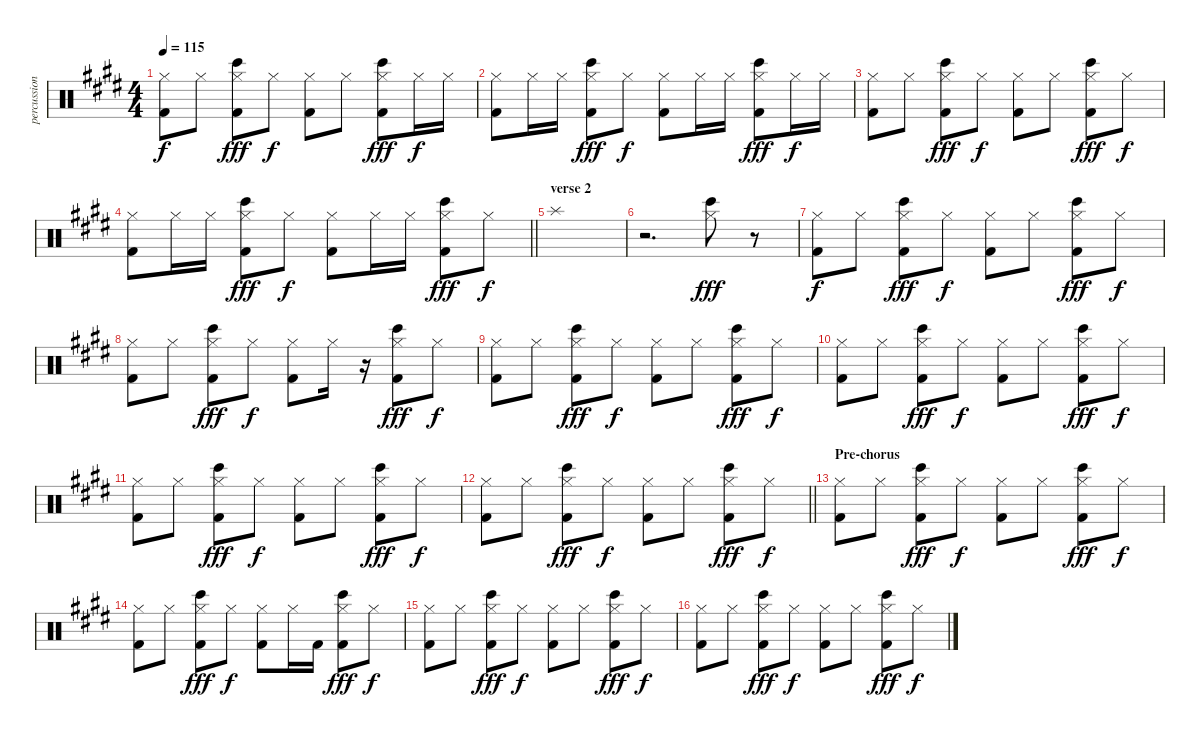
\track ("percussion" "percussion") {instrument percussion}
\staff {score}
\articulation defaults
\ts (4 4)
\tempo 115
\clef neutral
\ks c#minor
("Hi-Hat (closed)" "Kick (hit) 2").8{dy f} "Hi-Hat (closed)".8 ("Bongo High (hit)" "Hi-Hat (closed)" "Kick (hit) 2").8{dy fff} "Hi-Hat (closed)".8{dy f} ("Hi-Hat (closed)" "Kick (hit) 2").8 "Hi-Hat (closed)".8 ("Bongo High (hit)" "Hi-Hat (closed)" "Kick (hit) 2").8{dy fff} "Hi-Hat (closed)".16{dy f} "Hi-Hat (closed)".16 |
("Hi-Hat (closed)" "Kick (hit) 2").8 "Hi-Hat (closed)".16 "Hi-Hat (closed)".16 ("Bongo High (hit)" "Hi-Hat (closed)" "Kick (hit) 2").8{dy fff} "Hi-Hat (closed)".8{dy f} ("Hi-Hat (closed)" "Kick (hit) 2").8 "Hi-Hat (closed)".16 "Hi-Hat (closed)".16 ("Bongo High (hit)" "Hi-Hat (closed)" "Kick (hit) 2").8{dy fff} "Hi-Hat (closed)".16{dy f} "Hi-Hat (closed)".16 |
("Hi-Hat (closed)" "Kick (hit) 2").8 "Hi-Hat (closed)".8 ("Bongo High (hit)" "Hi-Hat (closed)" "Kick (hit) 2").8{dy fff} "Hi-Hat (closed)".8{dy f} ("Hi-Hat (closed)" "Kick (hit) 2").8 "Hi-Hat (closed)".8 ("Bongo High (hit)" "Hi-Hat (closed)" "Kick (hit) 2").8{dy fff} "Hi-Hat (closed)".8{dy f} |
\barLineRight lightlight
("Hi-Hat (closed)" "Kick (hit) 2").8 "Hi-Hat (closed)".16 "Hi-Hat (closed)".16 ("Bongo High (hit)" "Hi-Hat (closed)" "Kick (hit) 2").8{dy fff} "Hi-Hat (closed)".8{dy f} ("Hi-Hat (closed)" "Kick (hit) 2").8 "Hi-Hat (closed)".16 "Hi-Hat (closed)".16 ("Bongo High (hit)" "Hi-Hat (closed)" "Kick (hit) 2").8{dy fff} "Hi-Hat (closed)".8{dy f} |
\section ("" "verse 2")
"Splash (hit)".1 |
r.2{d} ("Bongo High (hit)" "Hi-Hat (closed)").8{dy fff} r.8 |
("Hi-Hat (closed)" "Kick (hit) 2").8{dy f} "Hi-Hat (closed)".8 ("Bongo High (hit)" "Hi-Hat (closed)" "Kick (hit) 2").8{dy fff} "Hi-Hat (closed)".8{dy f} ("Hi-Hat (closed)" "Kick (hit) 2").8 "Hi-Hat (closed)".8 ("Bongo High (hit)" "Hi-Hat (closed)" "Kick (hit) 2").8{dy fff} "Hi-Hat (closed)".8{dy f} |
("Hi-Hat (closed)" "Kick (hit) 2").8 "Hi-Hat (closed)".8 ("Bongo High (hit)" "Hi-Hat (closed)" "Kick (hit) 2").8{dy fff} "Hi-Hat (closed)".8{dy f} ("Hi-Hat (closed)" "Kick (hit) 2").8 "Hi-Hat (closed)".16 r.16 ("Bongo High (hit)" "Hi-Hat (closed)" "Kick (hit) 2").8{dy fff} "Hi-Hat (closed)".8{dy f} |
("Hi-Hat (closed)" "Kick (hit) 2").8 "Hi-Hat (closed)".8 ("Bongo High (hit)" "Hi-Hat (closed)" "Kick (hit) 2").8{dy fff} "Hi-Hat (closed)".8{dy f} ("Hi-Hat (closed)" "Kick (hit) 2").8 "Hi-Hat (closed)".8 ("Bongo High (hit)" "Hi-Hat (closed)" "Kick (hit) 2").8{dy fff} "Hi-Hat (closed)".8{dy f} |
("Hi-Hat (closed)" "Kick (hit) 2").8 "Hi-Hat (closed)".8 ("Bongo High (hit)" "Hi-Hat (closed)" "Kick (hit) 2").8{dy fff} "Hi-Hat (closed)".8{dy f} ("Hi-Hat (closed)" "Kick (hit) 2").8 "Hi-Hat (closed)".8 ("Bongo High (hit)" "Hi-Hat (closed)" "Kick (hit) 2").8{dy fff} "Hi-Hat (closed)".8{dy f} |
("Hi-Hat (closed)" "Kick (hit) 2").8 "Hi-Hat (closed)".8 ("Bongo High (hit)" "Hi-Hat (closed)" "Kick (hit) 2").8{dy fff} "Hi-Hat (closed)".8{dy f} ("Hi-Hat (closed)" "Kick (hit) 2").8 "Hi-Hat (closed)".8 ("Bongo High (hit)" "Hi-Hat (closed)" "Kick (hit) 2").8{dy fff} "Hi-Hat (closed)".8{dy f} |
\barLineRight lightlight
("Hi-Hat (closed)" "Kick (hit) 2").8 "Hi-Hat (closed)".8 ("Bongo High (hit)" "Hi-Hat (closed)" "Kick (hit) 2").8{dy fff} "Hi-Hat (closed)".8{dy f} ("Hi-Hat (closed)" "Kick (hit) 2").8 "Hi-Hat (closed)".8 ("Bongo High (hit)" "Hi-Hat (closed)" "Kick (hit) 2").8{dy fff} "Hi-Hat (closed)".8{dy f} |
\section ("" "Pre-chorus")
("Hi-Hat (closed)" "Kick (hit) 2").8 "Hi-Hat (closed)".8 ("Bongo High (hit)" "Hi-Hat (closed)" "Kick (hit) 2").8{dy fff} "Hi-Hat (closed)".8{dy f} ("Hi-Hat (closed)" "Kick (hit) 2").8 "Hi-Hat (closed)".8 ("Bongo High (hit)" "Hi-Hat (closed)" "Kick (hit) 2").8{dy fff} "Hi-Hat (closed)".8{dy f} |
("Hi-Hat (closed)" "Kick (hit) 2").8 "Hi-Hat (closed)".8 ("Bongo High (hit)" "Hi-Hat (closed)" "Kick (hit) 2").8{dy fff} "Hi-Hat (closed)".8{dy f} ("Hi-Hat (closed)" "Kick (hit) 2").8 "Hi-Hat (closed)".16 "Kick (hit) 2".16 ("Bongo High (hit)" "Hi-Hat (closed)" "Kick (hit) 2").8{dy fff} "Hi-Hat (closed)".8{dy f} |
("Hi-Hat (closed)" "Kick (hit) 2").8 "Hi-Hat (closed)".8 ("Bongo High (hit)" "Hi-Hat (closed)" "Kick (hit) 2").8{dy fff} "Hi-Hat (closed)".8{dy f} ("Hi-Hat (closed)" "Kick (hit) 2").8 "Hi-Hat (closed)".8 ("Bongo High (hit)" "Hi-Hat (closed)" "Kick (hit) 2").8{dy fff} "Hi-Hat (closed)".8{dy f} |
("Hi-Hat (closed)" "Kick (hit) 2").8 "Hi-Hat (closed)".8 ("Bongo High (hit)" "Hi-Hat (closed)" "Kick (hit) 2").8{dy fff} "Hi-Hat (closed)".8{dy f} ("Hi-Hat (closed)" "Kick (hit) 2").8 "Hi-Hat (closed)".8 ("Bongo High (hit)" "Hi-Hat (closed)" "Kick (hit) 2").8{dy fff} "Hi-Hat (closed)".8{dy f}
